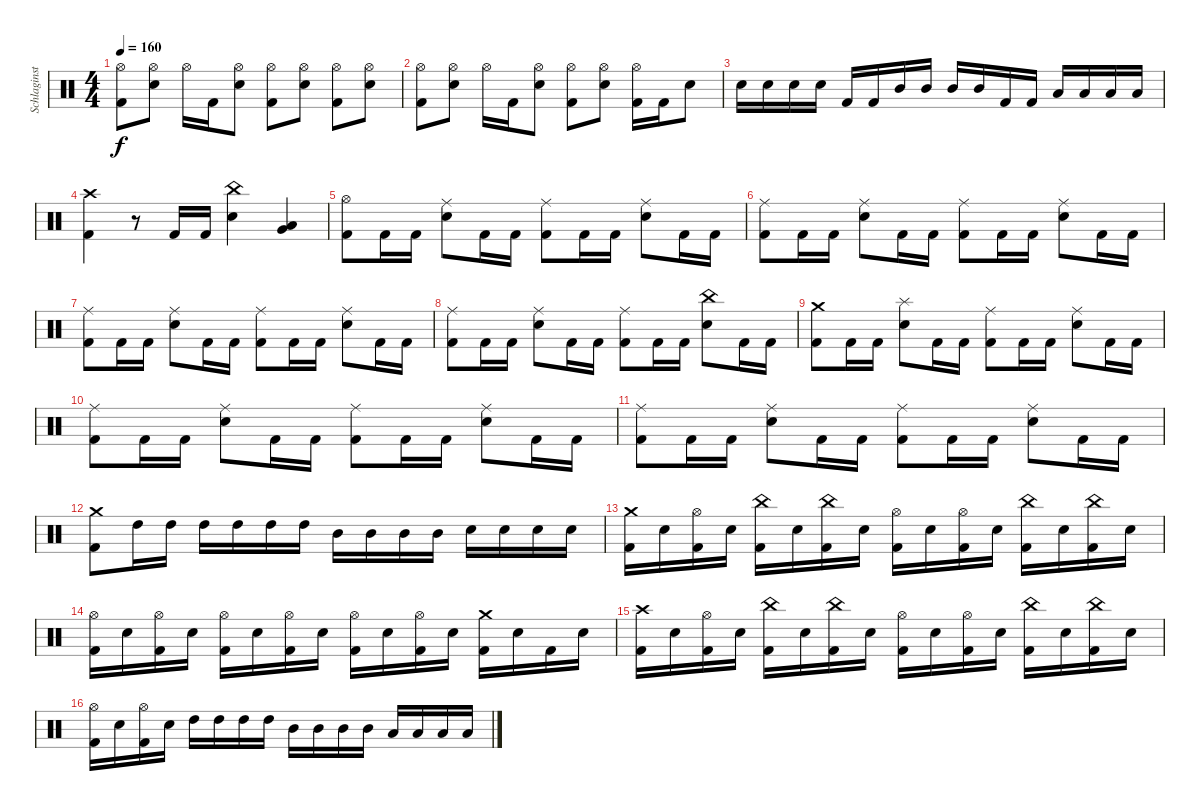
\track ("Schlaginstrumente - Auswahl" "Schlaginst") {instrument percussion}
\staff {score}
\articulation defaults
\ts (4 4)
\tempo 160
\clef neutral
\ks c
("Hi-Hat (open)" "Kick (hit) 2").8{dy f} ("Hi-Hat (open)" "Snare (hit) 2").8 "Hi-Hat (open)".16 "Kick (hit) 2".16 ("Hi-Hat (open)" "Snare (hit) 2").8 ("Hi-Hat (open)" "Kick (hit) 2").8 ("Hi-Hat (open)" "Snare (hit) 2").8 ("Hi-Hat (open)" "Kick (hit) 2").8 ("Hi-Hat (open)" "Snare (hit) 2").8 |
("Hi-Hat (open)" "Kick (hit) 2").8 ("Hi-Hat (open)" "Snare (hit) 2").8 "Hi-Hat (open)".16 "Kick (hit) 2".16 ("Hi-Hat (open)" "Snare (hit) 2").8 ("Hi-Hat (open)" "Kick (hit) 2").8 ("Hi-Hat (open)" "Snare (hit) 2").8 ("Hi-Hat (open)" "Kick (hit) 2").16 "Kick (hit) 2".16 "Snare (hit) 2".8 |
"Snare (hit) 2".16 "Snare (hit) 2".16 "Snare (hit) 2".16 "Snare (hit) 2".16 "Kick (hit) 2".16 "Kick (hit) 2".16 "Mid Tom (hit)".16 "Mid Tom (hit)".16 "Mid Tom (hit)".16 "Mid Tom (hit)".16 "Kick (hit) 2".16 "Kick (hit) 2".16 "Low Tom (hit)".16 "Low Tom (hit)".16 "Low Tom (hit)".16 "Low Tom (hit)".16 |
("Crash high (hit)" "Kick (hit) 2").4 r.8 "Kick (hit) 2".16 "Kick (hit) 2".16 ("China (hit)" "Snare (hit) 2").4 ("Very Low Tom (hit)" "Low Floor Tom (hit)").4 |
("Hi-Hat (open)" "Kick (hit) 2").8 "Kick (hit) 2".16 "Kick (hit) 2".16 ("Ride (middle)" "Snare (hit) 2").8 "Kick (hit) 2".16 "Kick (hit) 2".16 ("Ride (middle)" "Kick (hit) 2").8 "Kick (hit) 2".16 "Kick (hit) 2".16 ("Ride (middle)" "Snare (hit) 2").8 "Kick (hit) 2".16 "Kick (hit) 2".16 |
("Ride (middle)" "Kick (hit) 2").8 "Kick (hit) 2".16 "Kick (hit) 2".16 ("Ride (middle)" "Snare (hit) 2").8 "Kick (hit) 2".16 "Kick (hit) 2".16 ("Ride (middle)" "Kick (hit) 2").8 "Kick (hit) 2".16 "Kick (hit) 2".16 ("Ride (middle)" "Snare (hit) 2").8 "Kick (hit) 2".16 "Kick (hit) 2".16 |
("Ride (middle)" "Kick (hit) 2").8 "Kick (hit) 2".16 "Kick (hit) 2".16 ("Ride (middle)" "Snare (hit) 2").8 "Kick (hit) 2".16 "Kick (hit) 2".16 ("Ride (middle)" "Kick (hit) 2").8 "Kick (hit) 2".16 "Kick (hit) 2".16 ("Ride (middle)" "Snare (hit) 2").8 "Kick (hit) 2".16 "Kick (hit) 2".16 |
("Ride (middle)" "Kick (hit) 2").8 "Kick (hit) 2".16 "Kick (hit) 2".16 ("Ride (middle)" "Snare (hit) 2").8 "Kick (hit) 2".16 "Kick (hit) 2".16 ("Ride (middle)" "Kick (hit) 2").8 "Kick (hit) 2".16 "Kick (hit) 2".16 ("China (hit)" "Snare (hit) 2").8 "Kick (hit) 2".16 "Kick (hit) 2".16 |
("Crash medium (hit)" "Kick (hit) 2").8 "Kick (hit) 2".16 "Kick (hit) 2".16 ("Splash (hit)" "Snare (hit) 2").8 "Kick (hit) 2".16 "Kick (hit) 2".16 ("Ride (middle)" "Kick (hit) 2").8 "Kick (hit) 2".16 "Kick (hit) 2".16 ("Ride (middle)" "Snare (hit) 2").8 "Kick (hit) 2".16 "Kick (hit) 2".16 |
("Ride (middle)" "Kick (hit) 2").8 "Kick (hit) 2".16 "Kick (hit) 2".16 ("Ride (middle)" "Snare (hit) 2").8 "Kick (hit) 2".16 "Kick (hit) 2".16 ("Ride (middle)" "Kick (hit) 2").8 "Kick (hit) 2".16 "Kick (hit) 2".16 ("Ride (middle)" "Snare (hit) 2").8 "Kick (hit) 2".16 "Kick (hit) 2".16 |
("Ride (middle)" "Kick (hit) 2").8 "Kick (hit) 2".16 "Kick (hit) 2".16 ("Ride (middle)" "Snare (hit) 2").8 "Kick (hit) 2".16 "Kick (hit) 2".16 ("Ride (middle)" "Kick (hit) 2").8 "Kick (hit) 2".16 "Kick (hit) 2".16 ("Ride (middle)" "Snare (hit) 2").8 "Kick (hit) 2".16 "Kick (hit) 2".16 |
("Crash medium (hit)" "Kick (hit) 2").8 "High Tom (hit)".16 "High Tom (hit)".16 "High Tom (hit)".16 "High Tom (hit)".16 "High Tom (hit)".16 "High Tom (hit)".16 "Mid Tom (hit)".16 "Mid Tom (hit)".16 "Mid Tom (hit)".16 "Mid Tom (hit)".16 "Snare (hit) 2".16 "Snare (hit) 2".16 "Snare (hit) 2".16 "Snare (hit) 2".16 |
("Crash medium (hit)" "Kick (hit) 2").16 "Snare (hit) 2".16 ("Hi-Hat (open)" "Kick (hit) 2").16 "Snare (hit) 2".16 ("China (hit)" "Kick (hit) 2").16 "Snare (hit) 2".16 ("China (hit)" "Kick (hit) 2").16 "Snare (hit) 2".16 ("Hi-Hat (open)" "Kick (hit) 2").16 "Snare (hit) 2".16 ("Hi-Hat (open)" "Kick (hit) 2").16 "Snare (hit) 2".16 ("China (hit)" "Kick (hit) 2").16 "Snare (hit) 2".16 ("China (hit)" "Kick (hit) 2").16 "Snare (hit) 2".16 |
("Hi-Hat (open)" "Kick (hit) 2").16 "Snare (hit) 2".16 ("Hi-Hat (open)" "Kick (hit) 2").16 "Snare (hit) 2".16 ("Hi-Hat (open)" "Kick (hit) 2").16 "Snare (hit) 2".16 ("Hi-Hat (open)" "Kick (hit) 2").16 "Snare (hit) 2".16 ("Hi-Hat (open)" "Kick (hit) 2").16 "Snare (hit) 2".16 ("Hi-Hat (open)" "Kick (hit) 2").16 "Snare (hit) 2".16 ("Crash medium (hit)" "Kick (hit) 2").16 "Snare (hit) 2".16 "Kick (hit) 2".16 "Snare (hit) 2".16 |
("Crash high (hit)" "Kick (hit) 2").16 "Snare (hit) 2".16 ("Hi-Hat (open)" "Kick (hit) 2").16 "Snare (hit) 2".16 ("China (hit)" "Kick (hit) 2").16 "Snare (hit) 2".16 ("China (hit)" "Kick (hit) 2").16 "Snare (hit) 2".16 ("Hi-Hat (open)" "Kick (hit) 2").16 "Snare (hit) 2".16 ("Hi-Hat (open)" "Kick (hit) 2").16 "Snare (hit) 2".16 ("China (hit)" "Kick (hit) 2").16 "Snare (hit) 2".16 ("China (hit)" "Kick (hit) 2").16 "Snare (hit) 2".16 |
("Hi-Hat (open)" "Kick (hit) 2").16 "Snare (hit) 2".16 ("Hi-Hat (open)" "Kick (hit) 2").16 "Snare (hit) 2".16 "High Tom (hit)".16 "High Tom (hit)".16 "High Tom (hit)".16 "High Tom (hit)".16 "Mid Tom (hit)".16 "Mid Tom (hit)".16 "Mid Tom (hit)".16 "Mid Tom (hit)".16 "Low Tom (hit)".16 "Low Tom (hit)".16 "Low Tom (hit)".16 "Low Tom (hit)".16
